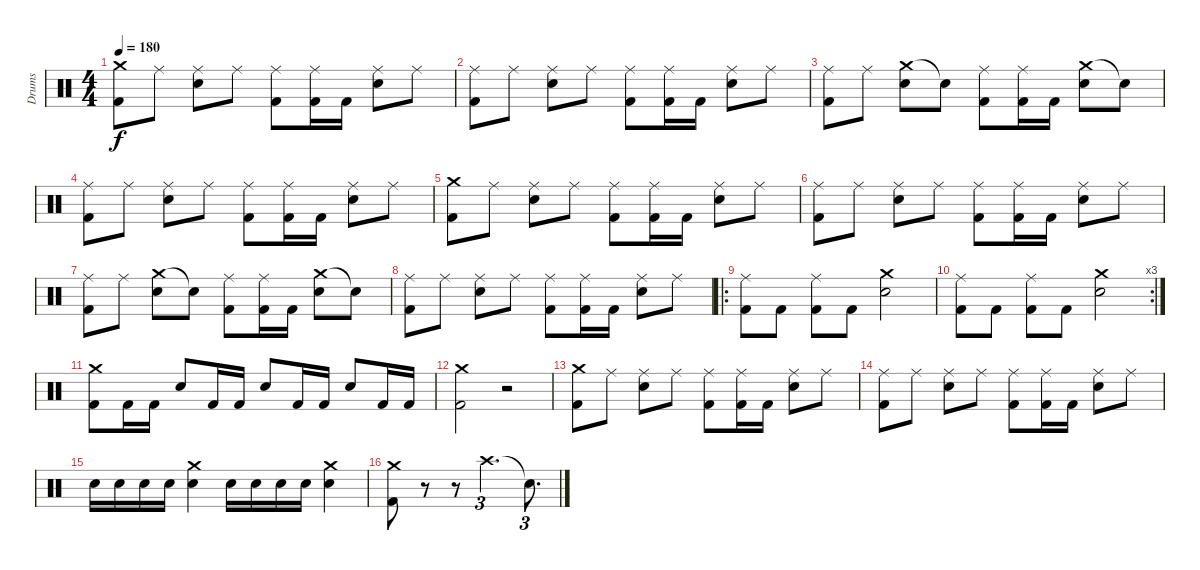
\track ("Drums" "Drums") {instrument percussion}
\staff {score}
\articulation defaults
\ts (4 4)
\tempo 180
\clef neutral
\ks c
("Crash medium (hit)" "Kick (hit) 2").8{dy f} "Ride (middle)".8 ("Ride (middle)" "Electric Snare (hit)").8 "Ride (middle)".8 ("Ride (middle)" "Kick (hit) 2").8 ("Ride (middle)" "Kick (hit) 2").16 "Kick (hit) 2".16 ("Ride (middle)" "Electric Snare (hit)").8 "Ride (middle)".8 |
("Ride (middle)" "Kick (hit) 2").8 "Ride (middle)".8 ("Ride (middle)" "Electric Snare (hit)").8 "Ride (middle)".8 ("Ride (middle)" "Kick (hit) 2").8 ("Ride (middle)" "Kick (hit) 2").16 "Kick (hit) 2".16 ("Ride (middle)" "Electric Snare (hit)").8 "Ride (middle)".8 |
("Ride (middle)" "Kick (hit) 2").8 "Ride (middle)".8 ("Crash medium (hit)" "Electric Snare (hit)").8 "Snare (hit)"{t}.8 ("Ride (middle)" "Kick (hit) 2").8 ("Ride (middle)" "Kick (hit) 2").16 "Kick (hit) 2".16 ("Crash medium (hit)" "Electric Snare (hit)").8 "Snare (hit)"{t}.8 |
("Ride (middle)" "Kick (hit) 2").8 "Ride (middle)".8 ("Ride (middle)" "Electric Snare (hit)").8 "Ride (middle)".8 ("Ride (middle)" "Kick (hit) 2").8 ("Ride (middle)" "Kick (hit) 2").16 "Kick (hit) 2".16 ("Ride (middle)" "Electric Snare (hit)").8 "Ride (middle)".8 |
("Crash medium (hit)" "Kick (hit) 2").8 "Ride (middle)".8 ("Ride (middle)" "Electric Snare (hit)").8 "Ride (middle)".8 ("Ride (middle)" "Kick (hit) 2").8 ("Ride (middle)" "Kick (hit) 2").16 "Kick (hit) 2".16 ("Ride (middle)" "Electric Snare (hit)").8 "Ride (middle)".8 |
("Ride (middle)" "Kick (hit) 2").8 "Ride (middle)".8 ("Ride (middle)" "Electric Snare (hit)").8 "Ride (middle)".8 ("Ride (middle)" "Kick (hit) 2").8 ("Ride (middle)" "Kick (hit) 2").16 "Kick (hit) 2".16 ("Ride (middle)" "Electric Snare (hit)").8 "Ride (middle)".8 |
("Ride (middle)" "Kick (hit) 2").8 "Ride (middle)".8 ("Crash medium (hit)" "Electric Snare (hit)").8 "Snare (hit)"{t}.8 ("Ride (middle)" "Kick (hit) 2").8 ("Ride (middle)" "Kick (hit) 2").16 "Kick (hit) 2".16 ("Crash medium (hit)" "Electric Snare (hit)").8 "Snare (hit)"{t}.8 |
("Ride (middle)" "Kick (hit) 2").8 "Ride (middle)".8 ("Ride (middle)" "Electric Snare (hit)").8 "Ride (middle)".8 ("Ride (middle)" "Kick (hit) 2").8 ("Ride (middle)" "Kick (hit) 2").16 "Kick (hit) 2".16 ("Ride (middle)" "Electric Snare (hit)").8 "Ride (middle)".8 |
\ro
("Ride (middle)" "Kick (hit) 2").8 "Kick (hit) 2".8 ("Ride (middle)" "Kick (hit) 2").8 "Kick (hit) 2".8 ("Crash medium (hit)" "Electric Snare (hit)").2 |
\rc 3
("Ride (middle)" "Kick (hit) 2").8 "Kick (hit) 2".8 ("Ride (middle)" "Kick (hit) 2").8 "Kick (hit) 2".8 ("Crash medium (hit)" "Electric Snare (hit)").2 |
("Crash medium (hit)" "Kick (hit) 2").8 "Kick (hit) 2".16 "Kick (hit) 2".16 "Electric Snare (hit)".8 "Kick (hit) 2".16 "Kick (hit) 2".16 "Electric Snare (hit)".8 "Kick (hit) 2".16 "Kick (hit) 2".16 "Electric Snare (hit)".8 "Kick (hit) 2".16 "Kick (hit) 2".16 |
("Crash medium (hit)" "Kick (hit) 2").2 r.2 |
("Crash medium (hit)" "Kick (hit) 2").8 "Ride (middle)".8 ("Ride (middle)" "Electric Snare (hit)").8 "Ride (middle)".8 ("Ride (middle)" "Kick (hit) 2").8 ("Ride (middle)" "Kick (hit) 2").16 "Kick (hit) 2".16 ("Ride (middle)" "Electric Snare (hit)").8 "Ride (middle)".8 |
("Ride (middle)" "Kick (hit) 2").8 "Ride (middle)".8 ("Ride (middle)" "Electric Snare (hit)").8 "Ride (middle)".8 ("Ride (middle)" "Kick (hit) 2").8 ("Ride (middle)" "Kick (hit) 2").16 "Kick (hit) 2".16 ("Ride (middle)" "Electric Snare (hit)").8 "Ride (middle)".8 |
"Electric Snare (hit)".16 "Electric Snare (hit)".16 "Electric Snare (hit)".16 "Electric Snare (hit)".16 ("Electric Snare (hit)" "Crash medium (hit)").4 "Electric Snare (hit)".16 "Electric Snare (hit)".16 "Electric Snare (hit)".16 "Electric Snare (hit)".16 ("Electric Snare (hit)" "Crash medium (hit)").4 |
("Crash medium (hit)" "Kick (hit) 2").8 r.8 r.8 "Crash high (hit)".2{d tu (3 2)} "Snare (hit)"{t}.8{d tu (3 2)}
